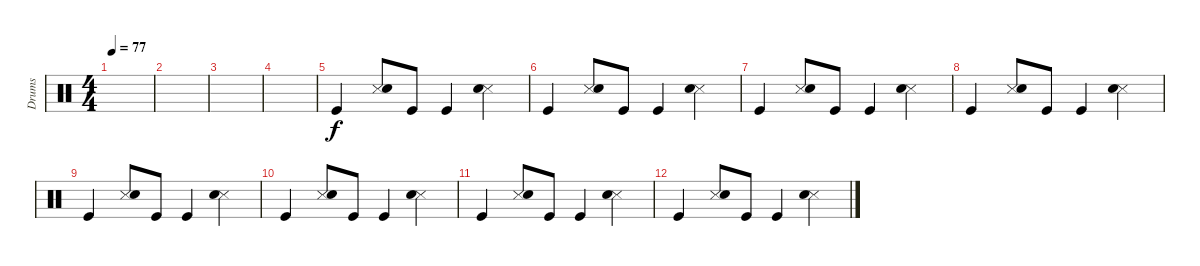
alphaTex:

\track ("Drums" "Drums") {instrument percussion}
\staff {score}
\articulation defaults
\ts (4 4)
\tempo 77
\clef neutral
\ks c
|
|
|
|
"Kick (hit)".4 ("Snare (side stick) 3" "Snare (hit) 2").8 "Kick (hit)".8 "Kick (hit)".4 ("Snare (side stick) 3" "Snare (hit) 2").4 |
"Kick (hit)".4 ("Snare (side stick) 3" "Snare (hit) 2").8 "Kick (hit)".8 "Kick (hit)".4 ("Snare (side stick) 3" "Snare (hit) 2").4 |
"Kick (hit)".4 ("Snare (side stick) 3" "Snare (hit) 2").8 "Kick (hit)".8 "Kick (hit)".4 ("Snare (side stick) 3" "Snare (hit) 2").4 |
"Kick (hit)".4 ("Snare (side stick) 3" "Snare (hit) 2").8 "Kick (hit)".8 "Kick (hit)".4 ("Snare (side stick) 3" "Snare (hit) 2").4 |
"Kick (hit)".4 ("Snare (side stick) 3" "Snare (hit) 2").8 "Kick (hit)".8 "Kick (hit)".4 ("Snare (side stick) 3" "Snare (hit) 2").4 |
"Kick (hit)".4 ("Snare (side stick) 3" "Snare (hit) 2").8 "Kick (hit)".8 "Kick (hit)".4 ("Snare (side stick) 3" "Snare (hit) 2").4 |
"Kick (hit)".4 ("Snare (side stick) 3" "Snare (hit) 2").8 "Kick (hit)".8 "Kick (hit)".4 ("Snare (side stick) 3" "Snare (hit) 2").4 |
"Kick (hit)".4 ("Snare (side stick) 3" "Snare (hit) 2").8 "Kick (hit)".8 "Kick (hit)".4 ("Snare (side stick) 3" "Snare (hit) 2").4
